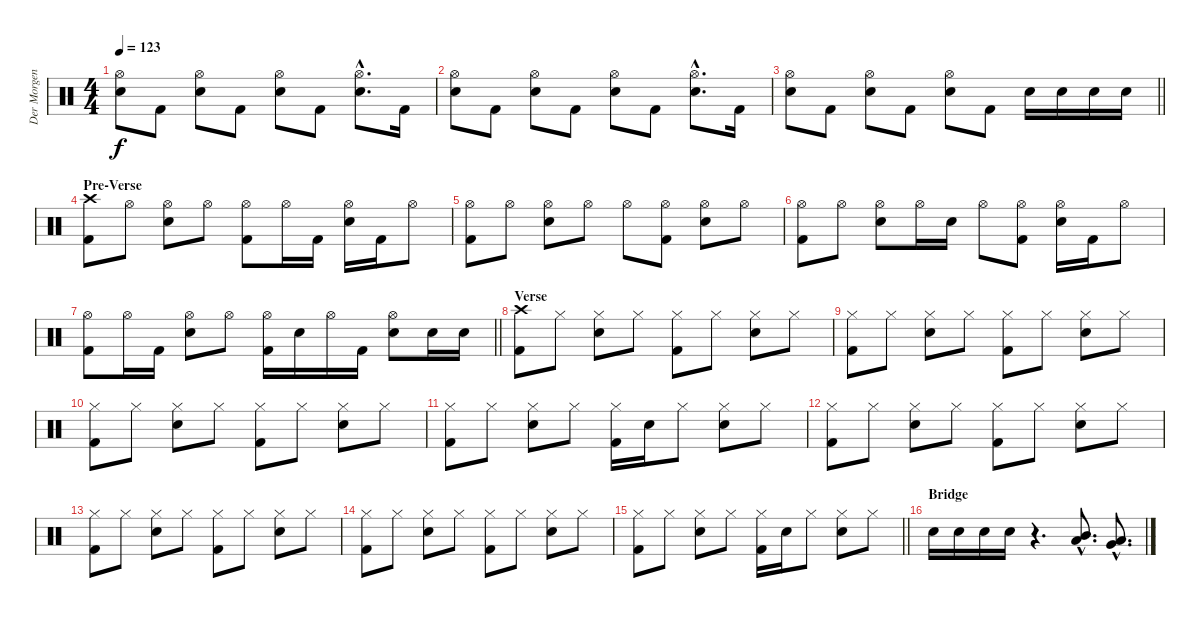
\track ("Der Morgenstern" "Der Morgen") {instrument percussion}
\staff {score}
\articulation defaults
\ts (4 4)
\tempo 123
\clef neutral
\ks c
("Hi-Hat (open)" "Electric Snare (hit)").8{dy f} "Kick (hit) 2".8 ("Hi-Hat (open)" "Electric Snare (hit)").8 "Kick (hit) 2".8 ("Hi-Hat (open)" "Electric Snare (hit)").8 "Kick (hit) 2".8 ("Hi-Hat (open)"{hac} "Electric Snare (hit)"{hac}).8{d} "Kick (hit) 2".16 |
("Hi-Hat (open)" "Electric Snare (hit)").8 "Kick (hit) 2".8 ("Hi-Hat (open)" "Electric Snare (hit)").8 "Kick (hit) 2".8 ("Hi-Hat (open)" "Electric Snare (hit)").8 "Kick (hit) 2".8 ("Hi-Hat (open)"{hac} "Electric Snare (hit)"{hac}).8{d} "Kick (hit) 2".16 |
\barLineRight lightlight
("Hi-Hat (open)" "Electric Snare (hit)").8 "Kick (hit) 2".8 ("Hi-Hat (open)" "Electric Snare (hit)").8 "Kick (hit) 2".8 ("Hi-Hat (open)" "Electric Snare (hit)").8 "Kick (hit) 2".8 "Electric Snare (hit)".16 "Electric Snare (hit)".16 "Electric Snare (hit)".16 "Electric Snare (hit)".16 |
\section ("" "Pre-Verse")
("Crash high (hit)" "Kick (hit) 2").8 "Hi-Hat (open)".8 ("Hi-Hat (open)" "Electric Snare (hit)").8 "Hi-Hat (open)".8 ("Hi-Hat (open)" "Kick (hit) 2").8 "Hi-Hat (open)".16 "Kick (hit) 2".16 ("Hi-Hat (open)" "Electric Snare (hit)").16 "Kick (hit) 2".16 "Hi-Hat (open)".8 |
("Hi-Hat (open)" "Kick (hit) 2").8 "Hi-Hat (open)".8 ("Hi-Hat (open)" "Electric Snare (hit)").8 "Hi-Hat (open)".8 "Hi-Hat (open)".8 ("Hi-Hat (open)" "Kick (hit) 2").8 ("Hi-Hat (open)" "Electric Snare (hit)").8 "Hi-Hat (open)".8 |
("Hi-Hat (open)" "Kick (hit) 2").8 "Hi-Hat (open)".8 ("Hi-Hat (open)" "Electric Snare (hit)").8 "Hi-Hat (open)".16 "Electric Snare (hit)".16 "Hi-Hat (open)".8 ("Hi-Hat (open)" "Kick (hit) 2").8 ("Hi-Hat (open)" "Electric Snare (hit)").16 "Kick (hit) 2".16 "Hi-Hat (open)".8 |
\barLineRight lightlight
("Hi-Hat (open)" "Kick (hit) 2").8 "Hi-Hat (open)".16 "Kick (hit) 2".16 ("Hi-Hat (open)" "Electric Snare (hit)").8 "Hi-Hat (open)".8 ("Hi-Hat (open)" "Kick (hit) 2").16 "Electric Snare (hit)".16 "Hi-Hat (open)".16 "Kick (hit) 2".16 ("Hi-Hat (open)" "Electric Snare (hit)").8 "Electric Snare (hit)".16 "Electric Snare (hit)".16 |
\section ("" "Verse")
("Crash high (hit)" "Kick (hit) 2").8 "Hi-Hat (closed)".8 ("Hi-Hat (closed)" "Electric Snare (hit)").8 "Hi-Hat (closed)".8 ("Hi-Hat (closed)" "Kick (hit) 2").8 "Hi-Hat (closed)".8 ("Hi-Hat (closed)" "Electric Snare (hit)").8 "Hi-Hat (closed)".8 |
("Hi-Hat (closed)" "Kick (hit) 2").8 "Hi-Hat (closed)".8 ("Hi-Hat (closed)" "Electric Snare (hit)").8 "Hi-Hat (closed)".8 ("Hi-Hat (closed)" "Kick (hit) 2").8 "Hi-Hat (closed)".8 ("Hi-Hat (closed)" "Electric Snare (hit)").8 "Hi-Hat (closed)".8 |
("Hi-Hat (closed)" "Kick (hit) 2").8 "Hi-Hat (closed)".8 ("Hi-Hat (closed)" "Electric Snare (hit)").8 "Hi-Hat (closed)".8 ("Hi-Hat (closed)" "Kick (hit) 2").8 "Hi-Hat (closed)".8 ("Hi-Hat (closed)" "Electric Snare (hit)").8 "Hi-Hat (closed)".8 |
("Hi-Hat (closed)" "Kick (hit) 2").8 "Hi-Hat (closed)".8 ("Hi-Hat (closed)" "Electric Snare (hit)").8 "Hi-Hat (closed)".8 ("Hi-Hat (closed)" "Kick (hit) 2").16 "Electric Snare (hit)".16 "Hi-Hat (closed)".8 ("Hi-Hat (closed)" "Electric Snare (hit)").8 "Hi-Hat (closed)".8 |
("Hi-Hat (closed)" "Kick (hit) 2").8 "Hi-Hat (closed)".8 ("Hi-Hat (closed)" "Electric Snare (hit)").8 "Hi-Hat (closed)".8 ("Hi-Hat (closed)" "Kick (hit) 2").8 "Hi-Hat (closed)".8 ("Hi-Hat (closed)" "Electric Snare (hit)").8 "Hi-Hat (closed)".8 |
("Hi-Hat (closed)" "Kick (hit) 2").8 "Hi-Hat (closed)".8 ("Hi-Hat (closed)" "Electric Snare (hit)").8 "Hi-Hat (closed)".8 ("Hi-Hat (closed)" "Kick (hit) 2").8 "Hi-Hat (closed)".8 ("Hi-Hat (closed)" "Electric Snare (hit)").8 "Hi-Hat (closed)".8 |
("Hi-Hat (closed)" "Kick (hit) 2").8 "Hi-Hat (closed)".8 ("Hi-Hat (closed)" "Electric Snare (hit)").8 "Hi-Hat (closed)".8 ("Hi-Hat (closed)" "Kick (hit) 2").8 "Hi-Hat (closed)".8 ("Hi-Hat (closed)" "Electric Snare (hit)").8 "Hi-Hat (closed)".8 |
\barLineRight lightlight
("Hi-Hat (closed)" "Kick (hit) 2").8 "Hi-Hat (closed)".8 ("Hi-Hat (closed)" "Electric Snare (hit)").8 "Hi-Hat (closed)".8 ("Hi-Hat (closed)" "Kick (hit) 2").16 "Electric Snare (hit)".16 "Hi-Hat (closed)".8 ("Hi-Hat (closed)" "Electric Snare (hit)").8 "Hi-Hat (closed)".8 |
\section ("" "Bridge")
"Electric Snare (hit)".16 "Electric Snare (hit)".16 "Electric Snare (hit)".16 "Electric Snare (hit)".16 r.4{d} ("Mid Tom (hit)"{hac} "Low Tom (hit)"{hac}).8{d} ("Low Tom (hit)"{hac} "Very Low Tom (hit)"{hac}).8{d}
